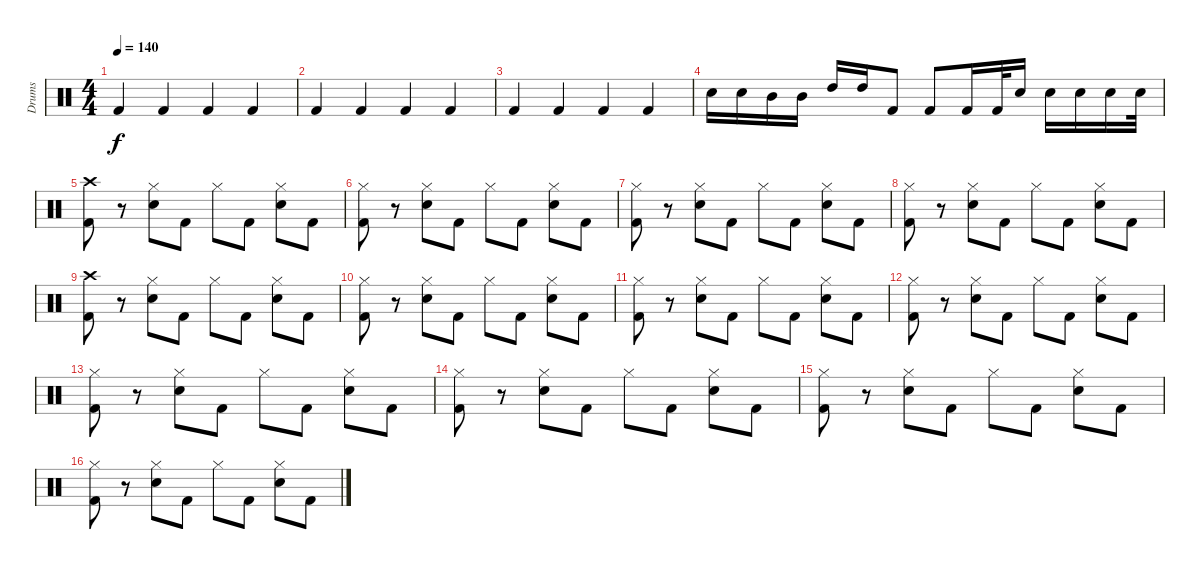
\track ("Drums" "Drums") {instrument percussion}
\staff {score}
\articulation defaults
\ts (4 4)
\tempo 140
\clef neutral
\ks c "Kick (hit) 2".4{dy f} "Kick (hit) 2".4 "Kick (hit) 2".4 "Kick (hit) 2".4
|
"Kick (hit) 2".4 "Kick (hit) 2".4 "Kick (hit) 2".4 "Kick (hit) 2".4 |
"Kick (hit) 2".4 "Kick (hit) 2".4 "Kick (hit) 2".4 "Kick (hit) 2".4 |
"Electric Snare (hit)".16 "Electric Snare (hit)".16 "Mid Tom (hit)".16 "Mid Tom (hit)".16 "High Tom (hit)".16 "High Tom (hit)".16 "Kick (hit) 2".8 "Kick (hit) 2".8 "Kick (hit) 2".16 "Kick (hit) 2".32 "Electric Snare (hit)".16 "Electric Snare (hit)".16 "Electric Snare (hit)".16 "Electric Snare (hit)".16 "Electric Snare (hit)".32 |
("Crash high (hit)" "Kick (hit) 2").8 r.8 ("Hi-Hat (closed)" "Electric Snare (hit)").8 "Kick (hit) 2".8 "Hi-Hat (closed)".8 "Kick (hit) 2".8 ("Hi-Hat (closed)" "Electric Snare (hit)").8 "Kick (hit) 2".8 |
("Hi-Hat (closed)" "Kick (hit) 2").8 r.8 ("Hi-Hat (closed)" "Electric Snare (hit)").8 "Kick (hit) 2".8 "Hi-Hat (closed)".8 "Kick (hit) 2".8 ("Hi-Hat (closed)" "Electric Snare (hit)").8 "Kick (hit) 2".8 |
("Hi-Hat (closed)" "Kick (hit) 2").8 r.8 ("Hi-Hat (closed)" "Electric Snare (hit)").8 "Kick (hit) 2".8 "Hi-Hat (closed)".8 "Kick (hit) 2".8 ("Hi-Hat (closed)" "Electric Snare (hit)").8 "Kick (hit) 2".8 |
("Hi-Hat (closed)" "Kick (hit) 2").8 r.8 ("Hi-Hat (closed)" "Electric Snare (hit)").8 "Kick (hit) 2".8 "Hi-Hat (closed)".8 "Kick (hit) 2".8 ("Hi-Hat (closed)" "Electric Snare (hit)").8 "Kick (hit) 2".8 |
("Crash high (hit)" "Kick (hit) 2").8 r.8 ("Hi-Hat (closed)" "Electric Snare (hit)").8 "Kick (hit) 2".8 "Hi-Hat (closed)".8 "Kick (hit) 2".8 ("Hi-Hat (closed)" "Electric Snare (hit)").8 "Kick (hit) 2".8 |
("Hi-Hat (closed)" "Kick (hit) 2").8 r.8 ("Hi-Hat (closed)" "Electric Snare (hit)").8 "Kick (hit) 2".8 "Hi-Hat (closed)".8 "Kick (hit) 2".8 ("Hi-Hat (closed)" "Electric Snare (hit)").8 "Kick (hit) 2".8 |
("Hi-Hat (closed)" "Kick (hit) 2").8 r.8 ("Hi-Hat (closed)" "Electric Snare (hit)").8 "Kick (hit) 2".8 "Hi-Hat (closed)".8 "Kick (hit) 2".8 ("Hi-Hat (closed)" "Electric Snare (hit)").8 "Kick (hit) 2".8 |
("Hi-Hat (closed)" "Kick (hit) 2").8 r.8 ("Hi-Hat (closed)" "Electric Snare (hit)").8 "Kick (hit) 2".8 "Hi-Hat (closed)".8 "Kick (hit) 2".8 ("Hi-Hat (closed)" "Electric Snare (hit)").8 "Kick (hit) 2".8 |
("Hi-Hat (closed)" "Kick (hit) 2").8 r.8 ("Hi-Hat (closed)" "Electric Snare (hit)").8 "Kick (hit) 2".8 "Hi-Hat (closed)".8 "Kick (hit) 2".8 ("Hi-Hat (closed)" "Electric Snare (hit)").8 "Kick (hit) 2".8 |
("Hi-Hat (closed)" "Kick (hit) 2").8 r.8 ("Hi-Hat (closed)" "Electric Snare (hit)").8 "Kick (hit) 2".8 "Hi-Hat (closed)".8 "Kick (hit) 2".8 ("Hi-Hat (closed)" "Electric Snare (hit)").8 "Kick (hit) 2".8 |
("Hi-Hat (closed)" "Kick (hit) 2").8 r.8 ("Hi-Hat (closed)" "Electric Snare (hit)").8 "Kick (hit) 2".8 "Hi-Hat (closed)".8 "Kick (hit) 2".8 ("Hi-Hat (closed)" "Electric Snare (hit)").8 "Kick (hit) 2".8 |
("Hi-Hat (closed)" "Kick (hit) 2").8 r.8 ("Hi-Hat (closed)" "Electric Snare (hit)").8 "Kick (hit) 2".8 "Hi-Hat (closed)".8 "Kick (hit) 2".8 ("Hi-Hat (closed)" "Electric Snare (hit)").8 "Kick (hit) 2".8
